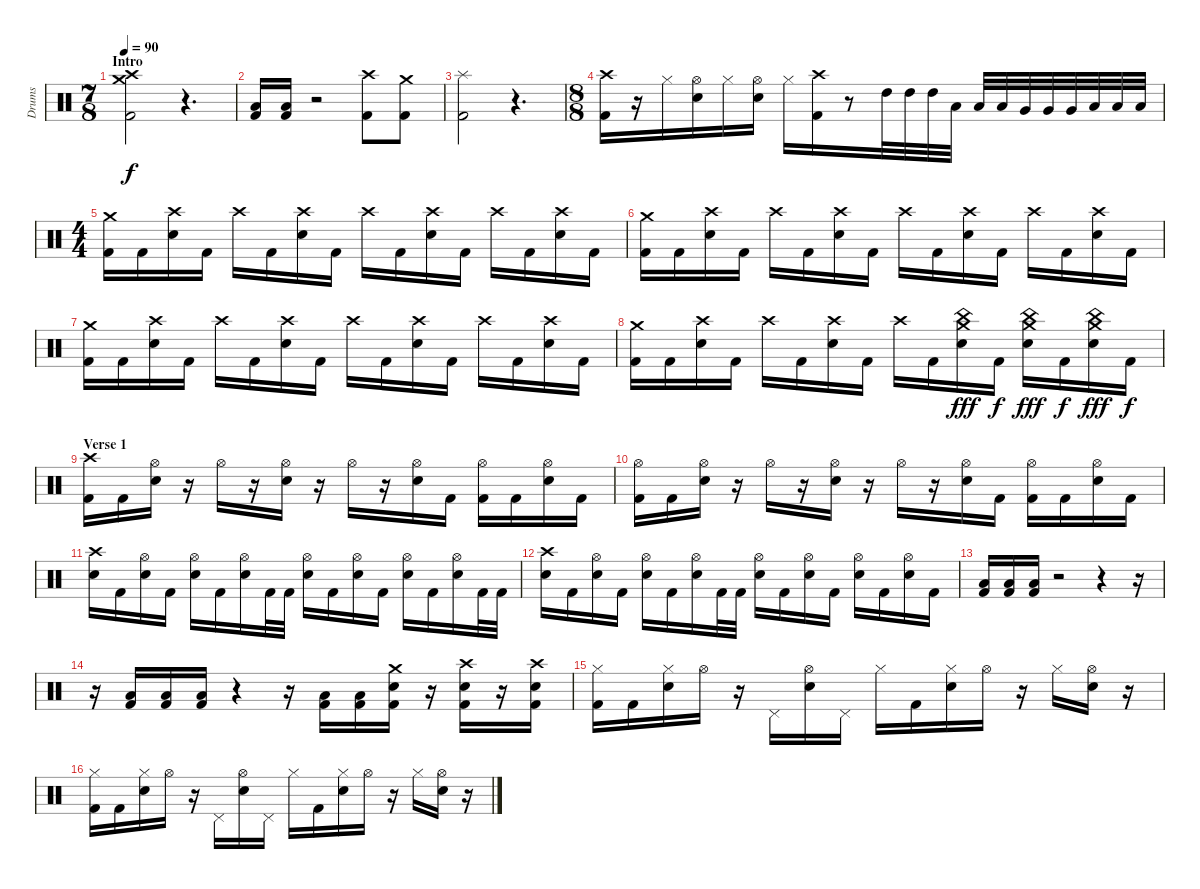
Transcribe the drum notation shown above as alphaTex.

\track ("Drums" "Drums") {instrument percussion}
\staff {score}
\articulation defaults
\ts (7 8)
\section ("" "Intro")
\tempo 90
\clef neutral
\ks c
("Crash high (hit)" "Crash medium (hit)" "Kick (hit) 2").2{dy f} r.4{d} |
("Low Tom (hit)" "Kick (hit) 2").16 ("Low Tom (hit)" "Kick (hit) 2").16 r.2 ("Crash high (hit)" "Kick (hit) 2").8 ("Crash medium (hit)" "Kick (hit) 2").8 |
("Splash (hit)" "Kick (hit) 2").2 r.4{d} |
\ts (8 8)
("Crash high (hit)" "Kick (hit) 2").16 r.16 "Hi-Hat (closed)".16 ("Hi-Hat (open)" "Snare (hit) 2").16 "Hi-Hat (closed)".16 ("Hi-Hat (open)" "Snare (hit) 2").16 "Hi-Hat (closed)".16 ("Crash high (hit)" "Kick (hit) 2").16 r.8 "High Tom (hit)".32 "High Tom (hit)".32 "High Tom (hit)".32 "Low Tom (hit)".32 "Low Tom (hit)".32 "Low Tom (hit)".32 "Very Low Tom (hit)".32 "Very Low Tom (hit)".32 "Very Low Tom (hit)".32 "Low Floor Tom (hit)".32 "Low Floor Tom (hit)".32 "Low Floor Tom (hit)".32 |
\ts (4 4)
("Crash medium (hit)" "Kick (hit) 2").16 "Kick (hit) 2".16 ("Crash high (hit)" "Snare (hit) 2").16 "Kick (hit) 2".16 "Crash high (hit)".16 "Kick (hit) 2".16 ("Crash high (hit)" "Snare (hit) 2").16 "Kick (hit) 2".16 "Crash high (hit)".16 "Kick (hit) 2".16 ("Crash high (hit)" "Snare (hit) 2").16 "Kick (hit) 2".16 "Crash high (hit)".16 "Kick (hit) 2".16 ("Crash high (hit)" "Snare (hit) 2").16 "Kick (hit) 2".16 |
("Crash medium (hit)" "Kick (hit) 2").16 "Kick (hit) 2".16 ("Crash high (hit)" "Snare (hit) 2").16 "Kick (hit) 2".16 "Crash high (hit)".16 "Kick (hit) 2".16 ("Crash high (hit)" "Snare (hit) 2").16 "Kick (hit) 2".16 "Crash high (hit)".16 "Kick (hit) 2".16 ("Crash high (hit)" "Snare (hit) 2").16 "Kick (hit) 2".16 "Crash high (hit)".16 "Kick (hit) 2".16 ("Crash high (hit)" "Snare (hit) 2").16 "Kick (hit) 2".16 |
("Crash medium (hit)" "Kick (hit) 2").16 "Kick (hit) 2".16 ("Crash high (hit)" "Snare (hit) 2").16 "Kick (hit) 2".16 "Crash high (hit)".16 "Kick (hit) 2".16 ("Crash high (hit)" "Snare (hit) 2").16 "Kick (hit) 2".16 "Crash high (hit)".16 "Kick (hit) 2".16 ("Crash high (hit)" "Snare (hit) 2").16 "Kick (hit) 2".16 "Crash high (hit)".16 "Kick (hit) 2".16 ("Crash high (hit)" "Snare (hit) 2").16 "Kick (hit) 2".16 |
("Crash medium (hit)" "Kick (hit) 2").16 "Kick (hit) 2".16 ("Crash high (hit)" "Snare (hit) 2").16 "Kick (hit) 2".16 "Crash high (hit)".16 "Kick (hit) 2".16 ("Crash high (hit)" "Snare (hit) 2").16 "Kick (hit) 2".16 "Crash high (hit)".16 "Kick (hit) 2".16 ("China (hit)" "Crash medium (hit)" "Snare (hit) 2").16{dy fff} "Kick (hit) 2".16{dy f} ("China (hit)" "Crash medium (hit)" "Snare (hit) 2").16{dy fff} "Kick (hit) 2".16{dy f} ("China (hit)" "Crash medium (hit)" "Snare (hit) 2").16{dy fff} "Kick (hit) 2".16{dy f} |
\section ("" "Verse 1")
("Crash high (hit)" "Kick (hit) 2").16 "Kick (hit) 2".16 ("Hi-Hat (open)" "Snare (hit) 2").16 r.16 "Hi-Hat (open)".16 r.16 ("Hi-Hat (open)" "Snare (hit) 2").16 r.16 "Hi-Hat (open)".16 r.16 ("Hi-Hat (open)" "Snare (hit) 2").16 "Kick (hit) 2".16 ("Hi-Hat (open)" "Kick (hit) 2").16 "Kick (hit) 2".16 ("Hi-Hat (open)" "Snare (hit) 2").16 "Kick (hit) 2".16 |
("Hi-Hat (open)" "Kick (hit) 2").16 "Kick (hit) 2".16 ("Hi-Hat (open)" "Snare (hit) 2").16 r.16 "Hi-Hat (open)".16 r.16 ("Hi-Hat (open)" "Snare (hit) 2").16 r.16 "Hi-Hat (open)".16 r.16 ("Hi-Hat (open)" "Snare (hit) 2").16 "Kick (hit) 2".16 ("Hi-Hat (open)" "Kick (hit) 2").16 "Kick (hit) 2".16 ("Hi-Hat (open)" "Snare (hit) 2").16 "Kick (hit) 2".16 |
("Crash high (hit)" "Snare (hit) 2").16 "Kick (hit) 2".16 ("Hi-Hat (open)" "Snare (hit) 2").16 "Kick (hit) 2".16 ("Hi-Hat (open)" "Snare (hit) 2").16 "Kick (hit) 2".16 ("Hi-Hat (open)" "Snare (hit) 2").16 "Kick (hit) 2".32 "Kick (hit) 2".32 ("Hi-Hat (open)" "Snare (hit) 2").16 "Kick (hit) 2".16 ("Hi-Hat (open)" "Snare (hit) 2").16 "Kick (hit) 2".16 ("Hi-Hat (open)" "Snare (hit) 2").16 "Kick (hit) 2".16 ("Hi-Hat (open)" "Snare (hit) 2").16 "Kick (hit) 2".32 "Kick (hit) 2".32 |
("Crash high (hit)" "Snare (hit) 2").16 "Kick (hit) 2".16 ("Hi-Hat (open)" "Snare (hit) 2").16 "Kick (hit) 2".16 ("Hi-Hat (open)" "Snare (hit) 2").16 "Kick (hit) 2".16 ("Hi-Hat (open)" "Snare (hit) 2").16 "Kick (hit) 2".32 "Kick (hit) 2".32 ("Hi-Hat (open)" "Snare (hit) 2").16 "Kick (hit) 2".16 ("Hi-Hat (open)" "Snare (hit) 2").16 "Kick (hit) 2".16 ("Hi-Hat (open)" "Snare (hit) 2").16 "Kick (hit) 2".16 ("Hi-Hat (open)" "Snare (hit) 2").16 "Kick (hit) 2".16 |
("Low Tom (hit)" "Kick (hit) 2").16 ("Low Tom (hit)" "Kick (hit) 2").16 ("Low Tom (hit)" "Kick (hit) 2").16 r.2 r.4 r.16 |
r.16 ("Low Tom (hit)" "Kick (hit) 2").16 ("Low Tom (hit)" "Kick (hit) 2").16 ("Low Tom (hit)" "Kick (hit) 2").16 r.4 r.16 ("Low Tom (hit)" "Kick (hit) 2").16 ("Low Tom (hit)" "Kick (hit) 2").16 ("Crash medium (hit)" "Snare (hit) 2" "Kick (hit) 2").16 r.16 ("Crash high (hit)" "Snare (hit) 2" "Kick (hit) 2").16 r.16 ("Crash high (hit)" "Snare (hit) 2" "Kick (hit) 2").16 |
("Hi-Hat (closed)" "Kick (hit) 2").16 "Kick (hit) 2".16 ("Hi-Hat (closed)" "Snare (hit) 2").16 "Hi-Hat (open)".16 r.16 "Pedal Hi-Hat (hit)".16 ("Hi-Hat (open)" "Snare (hit) 2").16 "Pedal Hi-Hat (hit)".16 "Hi-Hat (closed)".16 "Kick (hit) 2".16 ("Hi-Hat (closed)" "Snare (hit) 2").16 "Hi-Hat (open)".16 r.16 "Hi-Hat (closed)".16 ("Hi-Hat (open)" "Snare (hit) 2").16 r.16 |
("Hi-Hat (closed)" "Kick (hit) 2").16 "Kick (hit) 2".16 ("Hi-Hat (closed)" "Snare (hit) 2").16 "Hi-Hat (open)".16 r.16 "Pedal Hi-Hat (hit)".16 ("Hi-Hat (open)" "Snare (hit) 2").16 "Pedal Hi-Hat (hit)".16 "Hi-Hat (closed)".16 "Kick (hit) 2".16 ("Hi-Hat (closed)" "Snare (hit) 2").16 "Hi-Hat (open)".16 r.16 "Hi-Hat (closed)".16 ("Hi-Hat (open)" "Snare (hit) 2").16 r.16
